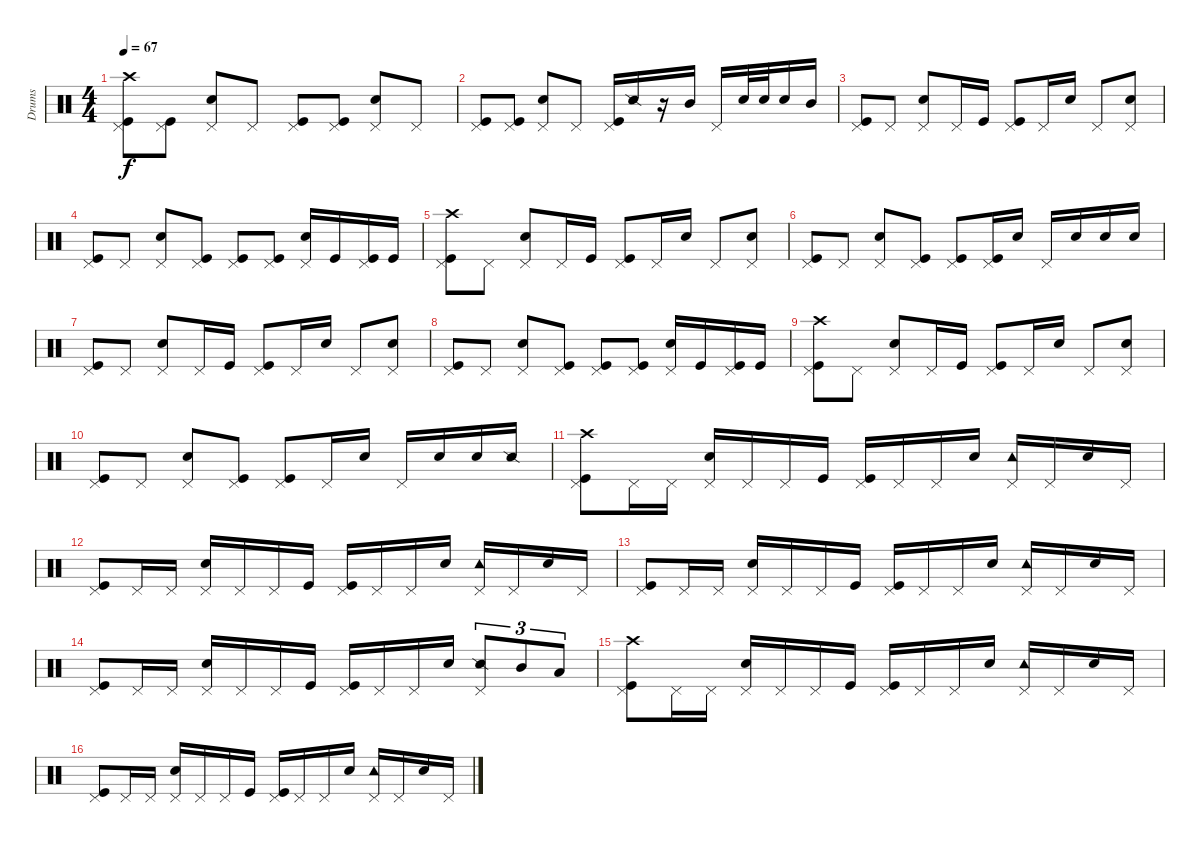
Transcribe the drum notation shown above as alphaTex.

\track ("Drums" "Drums") {instrument percussion}
\staff {score}
\articulation defaults
\ts (4 4)
\tempo 67
\clef neutral
\ks c
("Kick (hit)" "Pedal Hi-Hat (hit)" "Crash high (hit)").8{dy f} ("Kick (hit)" "Pedal Hi-Hat (hit)").8 ("Snare (hit) 2" "Pedal Hi-Hat (hit)").8 "Pedal Hi-Hat (hit)".8 ("Kick (hit)" "Pedal Hi-Hat (hit)").8 ("Kick (hit)" "Pedal Hi-Hat (hit)").8 ("Snare (hit) 2" "Pedal Hi-Hat (hit)").8 "Pedal Hi-Hat (hit)".8 |
("Kick (hit)" "Pedal Hi-Hat (hit)").8 ("Kick (hit)" "Pedal Hi-Hat (hit)").8 ("Snare (hit) 2" "Pedal Hi-Hat (hit)").8 "Pedal Hi-Hat (hit)".8 ("Kick (hit)" "Pedal Hi-Hat (hit)").16 "Snare (side stick) 2".16 r.16 "Mid Tom (hit)".16 "Pedal Hi-Hat (hit)".16 "Snare (hit) 2".32 "Snare (hit) 2".32 "Snare (hit) 2".16 "Mid Tom (hit)".16 |
("Kick (hit)" "Pedal Hi-Hat (hit)").8 "Pedal Hi-Hat (hit)".8 ("Snare (hit) 2" "Pedal Hi-Hat (hit)").8 "Pedal Hi-Hat (hit)".16 "Kick (hit)".16 ("Kick (hit)" "Pedal Hi-Hat (hit)").8 "Pedal Hi-Hat (hit)".16 "Snare (hit) 2".16 "Pedal Hi-Hat (hit)".8 ("Snare (hit) 2" "Pedal Hi-Hat (hit)").8 |
("Kick (hit)" "Pedal Hi-Hat (hit)").8 "Pedal Hi-Hat (hit)".8 ("Snare (hit) 2" "Pedal Hi-Hat (hit)").8 ("Kick (hit)" "Pedal Hi-Hat (hit)").8 ("Kick (hit)" "Pedal Hi-Hat (hit)").8 ("Kick (hit)" "Pedal Hi-Hat (hit)").8 ("Snare (hit) 2" "Pedal Hi-Hat (hit)").16 "Kick (hit)".16 ("Kick (hit)" "Pedal Hi-Hat (hit)").16 "Kick (hit)".16 |
("Kick (hit)" "Pedal Hi-Hat (hit)" "Crash high (hit)").8 "Pedal Hi-Hat (hit)".8 ("Snare (hit) 2" "Pedal Hi-Hat (hit)").8 "Pedal Hi-Hat (hit)".16 "Kick (hit)".16 ("Kick (hit)" "Pedal Hi-Hat (hit)").8 "Pedal Hi-Hat (hit)".16 "Snare (hit) 2".16 "Pedal Hi-Hat (hit)".8 ("Snare (hit) 2" "Pedal Hi-Hat (hit)").8 |
("Kick (hit)" "Pedal Hi-Hat (hit)").8 "Pedal Hi-Hat (hit)".8 ("Snare (hit) 2" "Pedal Hi-Hat (hit)").8 ("Kick (hit)" "Pedal Hi-Hat (hit)").8 ("Kick (hit)" "Pedal Hi-Hat (hit)").8 ("Kick (hit)" "Pedal Hi-Hat (hit)").16 "Snare (hit) 2".16 "Pedal Hi-Hat (hit)".16 "Snare (hit) 2".16 "Snare (hit) 2".16 "Snare (hit) 2".16 |
("Kick (hit)" "Pedal Hi-Hat (hit)").8 "Pedal Hi-Hat (hit)".8 ("Snare (hit) 2" "Pedal Hi-Hat (hit)").8 "Pedal Hi-Hat (hit)".16 "Kick (hit)".16 ("Kick (hit)" "Pedal Hi-Hat (hit)").8 "Pedal Hi-Hat (hit)".16 "Snare (hit) 2".16 "Pedal Hi-Hat (hit)".8 ("Snare (hit) 2" "Pedal Hi-Hat (hit)").8 |
("Kick (hit)" "Pedal Hi-Hat (hit)").8 "Pedal Hi-Hat (hit)".8 ("Snare (hit) 2" "Pedal Hi-Hat (hit)").8 ("Kick (hit)" "Pedal Hi-Hat (hit)").8 ("Kick (hit)" "Pedal Hi-Hat (hit)").8 ("Kick (hit)" "Pedal Hi-Hat (hit)").8 ("Snare (hit) 2" "Pedal Hi-Hat (hit)").16 "Kick (hit)".16 ("Kick (hit)" "Pedal Hi-Hat (hit)").16 "Kick (hit)".16 |
("Kick (hit)" "Pedal Hi-Hat (hit)" "Crash high (hit)").8 "Pedal Hi-Hat (hit)".8 ("Snare (hit) 2" "Pedal Hi-Hat (hit)").8 "Pedal Hi-Hat (hit)".16 "Kick (hit)".16 ("Kick (hit)" "Pedal Hi-Hat (hit)").8 "Pedal Hi-Hat (hit)".16 "Snare (hit) 2".16 "Pedal Hi-Hat (hit)".8 ("Snare (hit) 2" "Pedal Hi-Hat (hit)").8 |
("Kick (hit)" "Pedal Hi-Hat (hit)").8 "Pedal Hi-Hat (hit)".8 ("Snare (hit) 2" "Pedal Hi-Hat (hit)").8 ("Kick (hit)" "Pedal Hi-Hat (hit)").8 ("Kick (hit)" "Pedal Hi-Hat (hit)").8 "Pedal Hi-Hat (hit)".16 "Snare (hit) 2".16 "Pedal Hi-Hat (hit)".16 "Snare (hit) 2".16 "Snare (hit) 2".16 "Snare (side stick) 2".16 |
("Kick (hit)" "Pedal Hi-Hat (hit)" "Crash high (hit)").8 "Pedal Hi-Hat (hit)".16 "Pedal Hi-Hat (hit)".16 ("Snare (hit) 2" "Pedal Hi-Hat (hit)").16 "Pedal Hi-Hat (hit)".16 "Pedal Hi-Hat (hit)".16 "Kick (hit)".16 ("Kick (hit)" "Pedal Hi-Hat (hit)").16 "Pedal Hi-Hat (hit)".16 "Pedal Hi-Hat (hit)".16 "Snare (hit) 2".16 ("Tambourine (hit)" "Pedal Hi-Hat (hit)").16 "Pedal Hi-Hat (hit)".16 "Snare (hit) 2".16 "Pedal Hi-Hat (hit)".16 |
("Kick (hit)" "Pedal Hi-Hat (hit)").8 "Pedal Hi-Hat (hit)".16 "Pedal Hi-Hat (hit)".16 ("Snare (hit) 2" "Pedal Hi-Hat (hit)").16 "Pedal Hi-Hat (hit)".16 "Pedal Hi-Hat (hit)".16 "Kick (hit)".16 ("Kick (hit)" "Pedal Hi-Hat (hit)").16 "Pedal Hi-Hat (hit)".16 "Pedal Hi-Hat (hit)".16 "Snare (hit) 2".16 ("Tambourine (hit)" "Pedal Hi-Hat (hit)").16 "Pedal Hi-Hat (hit)".16 "Snare (hit) 2".16 "Pedal Hi-Hat (hit)".16 |
("Kick (hit)" "Pedal Hi-Hat (hit)").8 "Pedal Hi-Hat (hit)".16 "Pedal Hi-Hat (hit)".16 ("Snare (hit) 2" "Pedal Hi-Hat (hit)").16 "Pedal Hi-Hat (hit)".16 "Pedal Hi-Hat (hit)".16 "Kick (hit)".16 ("Kick (hit)" "Pedal Hi-Hat (hit)").16 "Pedal Hi-Hat (hit)".16 "Pedal Hi-Hat (hit)".16 "Snare (hit) 2".16 ("Tambourine (hit)" "Pedal Hi-Hat (hit)").16 "Pedal Hi-Hat (hit)".16 "Snare (hit) 2".16 "Pedal Hi-Hat (hit)".16 |
("Kick (hit)" "Pedal Hi-Hat (hit)").8 "Pedal Hi-Hat (hit)".16 "Pedal Hi-Hat (hit)".16 ("Snare (hit) 2" "Pedal Hi-Hat (hit)").16 "Pedal Hi-Hat (hit)".16 "Pedal Hi-Hat (hit)".16 "Kick (hit)".16 ("Kick (hit)" "Pedal Hi-Hat (hit)").16 "Pedal Hi-Hat (hit)".16 "Pedal Hi-Hat (hit)".16 "Snare (hit) 2".16 ("Snare (side stick) 2" "Pedal Hi-Hat (hit)").8{tu (3 2)} "Mid Tom (hit)".8{tu (3 2)} "Low Tom (hit)".8{tu (3 2)} |
("Kick (hit)" "Pedal Hi-Hat (hit)" "Crash high (hit)").8 "Pedal Hi-Hat (hit)".16 "Pedal Hi-Hat (hit)".16 ("Snare (hit) 2" "Pedal Hi-Hat (hit)").16 "Pedal Hi-Hat (hit)".16 "Pedal Hi-Hat (hit)".16 "Kick (hit)".16 ("Kick (hit)" "Pedal Hi-Hat (hit)").16 "Pedal Hi-Hat (hit)".16 "Pedal Hi-Hat (hit)".16 "Snare (hit) 2".16 ("Tambourine (hit)" "Pedal Hi-Hat (hit)").16 "Pedal Hi-Hat (hit)".16 "Snare (hit) 2".16 "Pedal Hi-Hat (hit)".16 |
("Kick (hit)" "Pedal Hi-Hat (hit)").8 "Pedal Hi-Hat (hit)".16 "Pedal Hi-Hat (hit)".16 ("Snare (hit) 2" "Pedal Hi-Hat (hit)").16 "Pedal Hi-Hat (hit)".16 "Pedal Hi-Hat (hit)".16 "Kick (hit)".16 ("Kick (hit)" "Pedal Hi-Hat (hit)").16 "Pedal Hi-Hat (hit)".16 "Pedal Hi-Hat (hit)".16 "Snare (hit) 2".16 ("Tambourine (hit)" "Pedal Hi-Hat (hit)").16 "Pedal Hi-Hat (hit)".16 "Snare (hit) 2".16 "Pedal Hi-Hat (hit)".16
